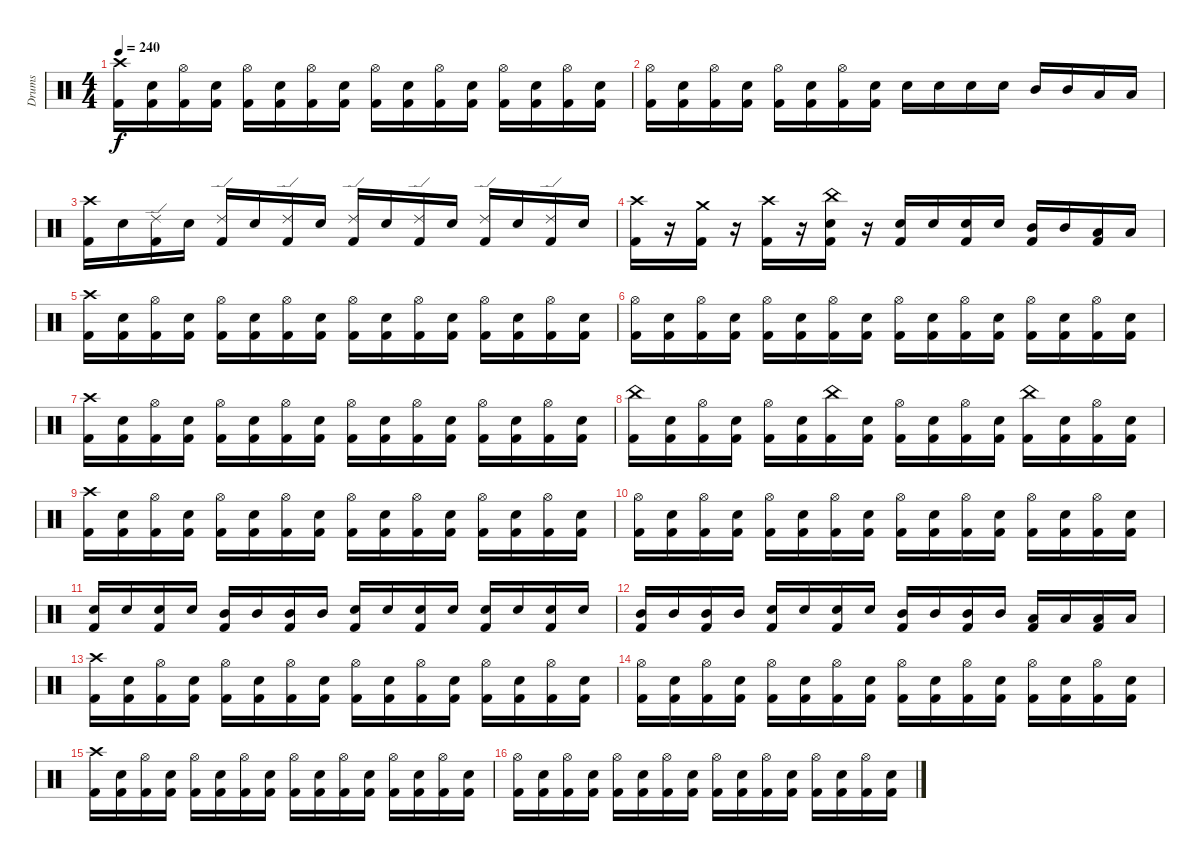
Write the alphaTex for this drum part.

\track ("Drums" "Drums") {instrument percussion}
\staff {score}
\articulation defaults
\ts (4 4)
\tempo 240
\clef neutral
\ks c
("Crash high (hit)" "Kick (hit) 2").16{dy f} ("Snare (hit) 2" "Kick (hit) 2").16 ("Hi-Hat (open)" "Kick (hit) 2").16 ("Snare (hit) 2" "Kick (hit) 2").16 ("Hi-Hat (open)" "Kick (hit) 2").16 ("Snare (hit) 2" "Kick (hit) 2").16 ("Hi-Hat (open)" "Kick (hit) 2").16 ("Snare (hit) 2" "Kick (hit) 2").16 ("Hi-Hat (open)" "Kick (hit) 2").16 ("Snare (hit) 2" "Kick (hit) 2").16 ("Hi-Hat (open)" "Kick (hit) 2").16 ("Snare (hit) 2" "Kick (hit) 2").16 ("Hi-Hat (open)" "Kick (hit) 2").16 ("Snare (hit) 2" "Kick (hit) 2").16 ("Hi-Hat (open)" "Kick (hit) 2").16 ("Snare (hit) 2" "Kick (hit) 2").16 |
("Hi-Hat (open)" "Kick (hit) 2").16 ("Snare (hit) 2" "Kick (hit) 2").16 ("Hi-Hat (open)" "Kick (hit) 2").16 ("Snare (hit) 2" "Kick (hit) 2").16 ("Hi-Hat (open)" "Kick (hit) 2").16 ("Snare (hit) 2" "Kick (hit) 2").16 ("Hi-Hat (open)" "Kick (hit) 2").16 ("Snare (hit) 2" "Kick (hit) 2").16 "Snare (hit) 2".16 "Snare (hit) 2".16 "Snare (hit) 2".16 "Snare (hit) 2".16 "Mid Tom (hit)".16 "Mid Tom (hit)".16 "Low Tom (hit)".16 "Low Tom (hit)".16 |
("Crash high (hit)" "Kick (hit) 2").16 "Snare (hit) 2".16 ("Ride (edge) 2" "Kick (hit) 2").16 "Snare (hit) 2".16 ("Ride (edge) 2" "Kick (hit) 2").16 "Snare (hit) 2".16 ("Ride (edge) 2" "Kick (hit) 2").16 "Snare (hit) 2".16 ("Ride (edge) 2" "Kick (hit) 2").16 "Snare (hit) 2".16 ("Ride (edge) 2" "Kick (hit) 2").16 "Snare (hit) 2".16 ("Ride (edge) 2" "Kick (hit) 2").16 "Snare (hit) 2".16 ("Ride (edge) 2" "Kick (hit) 2").16 "Snare (hit) 2".16 |
("Crash high (hit)" "Kick (hit) 2").16 r.16 ("Crash medium (hit)" "Kick (hit) 2").16 r.16 ("Crash high (hit)" "Kick (hit) 2").16 r.16 ("China (hit)" "Snare (hit) 2" "Kick (hit) 2").16 r.16 ("Snare (hit) 2" "Kick (hit) 2").16 "Snare (hit) 2".16 ("Snare (hit) 2" "Kick (hit) 2").16 "Snare (hit) 2".16 ("Mid Tom (hit)" "Kick (hit) 2").16 "Mid Tom (hit)".16 ("Low Tom (hit)" "Kick (hit) 2").16 "Low Tom (hit)".16 |
("Crash high (hit)" "Kick (hit) 2").16 ("Snare (hit) 2" "Kick (hit) 2").16 ("Hi-Hat (open)" "Kick (hit) 2").16 ("Snare (hit) 2" "Kick (hit) 2").16 ("Hi-Hat (open)" "Kick (hit) 2").16 ("Snare (hit) 2" "Kick (hit) 2").16 ("Hi-Hat (open)" "Kick (hit) 2").16 ("Snare (hit) 2" "Kick (hit) 2").16 ("Hi-Hat (open)" "Kick (hit) 2").16 ("Snare (hit) 2" "Kick (hit) 2").16 ("Hi-Hat (open)" "Kick (hit) 2").16 ("Snare (hit) 2" "Kick (hit) 2").16 ("Hi-Hat (open)" "Kick (hit) 2").16 ("Snare (hit) 2" "Kick (hit) 2").16 ("Hi-Hat (open)" "Kick (hit) 2").16 ("Snare (hit) 2" "Kick (hit) 2").16 |
("Hi-Hat (open)" "Kick (hit) 2").16 ("Snare (hit) 2" "Kick (hit) 2").16 ("Hi-Hat (open)" "Kick (hit) 2").16 ("Snare (hit) 2" "Kick (hit) 2").16 ("Hi-Hat (open)" "Kick (hit) 2").16 ("Snare (hit) 2" "Kick (hit) 2").16 ("Hi-Hat (open)" "Kick (hit) 2").16 ("Snare (hit) 2" "Kick (hit) 2").16 ("Hi-Hat (open)" "Kick (hit) 2").16 ("Snare (hit) 2" "Kick (hit) 2").16 ("Hi-Hat (open)" "Kick (hit) 2").16 ("Snare (hit) 2" "Kick (hit) 2").16 ("Hi-Hat (open)" "Kick (hit) 2").16 ("Snare (hit) 2" "Kick (hit) 2").16 ("Hi-Hat (open)" "Kick (hit) 2").16 ("Snare (hit) 2" "Kick (hit) 2").16 |
("Crash high (hit)" "Kick (hit) 2").16 ("Snare (hit) 2" "Kick (hit) 2").16 ("Hi-Hat (open)" "Kick (hit) 2").16 ("Snare (hit) 2" "Kick (hit) 2").16 ("Hi-Hat (open)" "Kick (hit) 2").16 ("Snare (hit) 2" "Kick (hit) 2").16 ("Hi-Hat (open)" "Kick (hit) 2").16 ("Snare (hit) 2" "Kick (hit) 2").16 ("Hi-Hat (open)" "Kick (hit) 2").16 ("Snare (hit) 2" "Kick (hit) 2").16 ("Hi-Hat (open)" "Kick (hit) 2").16 ("Snare (hit) 2" "Kick (hit) 2").16 ("Hi-Hat (open)" "Kick (hit) 2").16 ("Snare (hit) 2" "Kick (hit) 2").16 ("Hi-Hat (open)" "Kick (hit) 2").16 ("Snare (hit) 2" "Kick (hit) 2").16 |
("China (hit)" "Kick (hit) 2").16 ("Snare (hit) 2" "Kick (hit) 2").16 ("Hi-Hat (open)" "Kick (hit) 2").16 ("Snare (hit) 2" "Kick (hit) 2").16 ("Hi-Hat (open)" "Kick (hit) 2").16 ("Snare (hit) 2" "Kick (hit) 2").16 ("China (hit)" "Kick (hit) 2").16 ("Snare (hit) 2" "Kick (hit) 2").16 ("Hi-Hat (open)" "Kick (hit) 2").16 ("Snare (hit) 2" "Kick (hit) 2").16 ("Hi-Hat (open)" "Kick (hit) 2").16 ("Snare (hit) 2" "Kick (hit) 2").16 ("China (hit)" "Kick (hit) 2").16 ("Snare (hit) 2" "Kick (hit) 2").16 ("Hi-Hat (open)" "Kick (hit) 2").16 ("Snare (hit) 2" "Kick (hit) 2").16 |
("Crash high (hit)" "Kick (hit) 2").16 ("Snare (hit) 2" "Kick (hit) 2").16 ("Hi-Hat (open)" "Kick (hit) 2").16 ("Snare (hit) 2" "Kick (hit) 2").16 ("Hi-Hat (open)" "Kick (hit) 2").16 ("Snare (hit) 2" "Kick (hit) 2").16 ("Hi-Hat (open)" "Kick (hit) 2").16 ("Snare (hit) 2" "Kick (hit) 2").16 ("Hi-Hat (open)" "Kick (hit) 2").16 ("Snare (hit) 2" "Kick (hit) 2").16 ("Hi-Hat (open)" "Kick (hit) 2").16 ("Snare (hit) 2" "Kick (hit) 2").16 ("Hi-Hat (open)" "Kick (hit) 2").16 ("Snare (hit) 2" "Kick (hit) 2").16 ("Hi-Hat (open)" "Kick (hit) 2").16 ("Snare (hit) 2" "Kick (hit) 2").16 |
("Hi-Hat (open)" "Kick (hit) 2").16 ("Snare (hit) 2" "Kick (hit) 2").16 ("Hi-Hat (open)" "Kick (hit) 2").16 ("Snare (hit) 2" "Kick (hit) 2").16 ("Hi-Hat (open)" "Kick (hit) 2").16 ("Snare (hit) 2" "Kick (hit) 2").16 ("Hi-Hat (open)" "Kick (hit) 2").16 ("Snare (hit) 2" "Kick (hit) 2").16 ("Hi-Hat (open)" "Kick (hit) 2").16 ("Snare (hit) 2" "Kick (hit) 2").16 ("Hi-Hat (open)" "Kick (hit) 2").16 ("Snare (hit) 2" "Kick (hit) 2").16 ("Hi-Hat (open)" "Kick (hit) 2").16 ("Snare (hit) 2" "Kick (hit) 2").16 ("Hi-Hat (open)" "Kick (hit) 2").16 ("Snare (hit) 2" "Kick (hit) 2").16 |
("Snare (hit) 2" "Kick (hit) 2").16 "Snare (hit) 2".16 ("Snare (hit) 2" "Kick (hit) 2").16 "Snare (hit) 2".16 ("Mid Tom (hit)" "Kick (hit) 2").16 "Mid Tom (hit)".16 ("Mid Tom (hit)" "Kick (hit) 2").16 "Mid Tom (hit)".16 ("Snare (hit) 2" "Kick (hit) 2").16 "Snare (hit) 2".16 ("Snare (hit) 2" "Kick (hit) 2").16 "Snare (hit) 2".16 ("Snare (hit) 2" "Kick (hit) 2").16 "Snare (hit) 2".16 ("Snare (hit) 2" "Kick (hit) 2").16 "Snare (hit) 2".16 |
("Mid Tom (hit)" "Kick (hit) 2").16 "Mid Tom (hit)".16 ("Mid Tom (hit)" "Kick (hit) 2").16 "Mid Tom (hit)".16 ("Snare (hit) 2" "Kick (hit) 2").16 "Snare (hit) 2".16 ("Snare (hit) 2" "Kick (hit) 2").16 "Snare (hit) 2".16 ("Mid Tom (hit)" "Kick (hit) 2").16 "Mid Tom (hit)".16 ("Mid Tom (hit)" "Kick (hit) 2").16 "Mid Tom (hit)".16 ("Low Tom (hit)" "Kick (hit) 2").16 "Low Tom (hit)".16 ("Low Tom (hit)" "Kick (hit) 2").16 "Low Tom (hit)".16 |
("Crash high (hit)" "Kick (hit) 2").16 ("Snare (hit) 2" "Kick (hit) 2").16 ("Hi-Hat (open)" "Kick (hit) 2").16 ("Snare (hit) 2" "Kick (hit) 2").16 ("Hi-Hat (open)" "Kick (hit) 2").16 ("Snare (hit) 2" "Kick (hit) 2").16 ("Hi-Hat (open)" "Kick (hit) 2").16 ("Snare (hit) 2" "Kick (hit) 2").16 ("Hi-Hat (open)" "Kick (hit) 2").16 ("Snare (hit) 2" "Kick (hit) 2").16 ("Hi-Hat (open)" "Kick (hit) 2").16 ("Snare (hit) 2" "Kick (hit) 2").16 ("Hi-Hat (open)" "Kick (hit) 2").16 ("Snare (hit) 2" "Kick (hit) 2").16 ("Hi-Hat (open)" "Kick (hit) 2").16 ("Snare (hit) 2" "Kick (hit) 2").16 |
("Hi-Hat (open)" "Kick (hit) 2").16 ("Snare (hit) 2" "Kick (hit) 2").16 ("Hi-Hat (open)" "Kick (hit) 2").16 ("Snare (hit) 2" "Kick (hit) 2").16 ("Hi-Hat (open)" "Kick (hit) 2").16 ("Snare (hit) 2" "Kick (hit) 2").16 ("Hi-Hat (open)" "Kick (hit) 2").16 ("Snare (hit) 2" "Kick (hit) 2").16 ("Hi-Hat (open)" "Kick (hit) 2").16 ("Snare (hit) 2" "Kick (hit) 2").16 ("Hi-Hat (open)" "Kick (hit) 2").16 ("Snare (hit) 2" "Kick (hit) 2").16 ("Hi-Hat (open)" "Kick (hit) 2").16 ("Snare (hit) 2" "Kick (hit) 2").16 ("Hi-Hat (open)" "Kick (hit) 2").16 ("Snare (hit) 2" "Kick (hit) 2").16 |
("Crash high (hit)" "Kick (hit) 2").16 ("Snare (hit) 2" "Kick (hit) 2").16 ("Hi-Hat (open)" "Kick (hit) 2").16 ("Snare (hit) 2" "Kick (hit) 2").16 ("Hi-Hat (open)" "Kick (hit) 2").16 ("Snare (hit) 2" "Kick (hit) 2").16 ("Hi-Hat (open)" "Kick (hit) 2").16 ("Snare (hit) 2" "Kick (hit) 2").16 ("Hi-Hat (open)" "Kick (hit) 2").16 ("Snare (hit) 2" "Kick (hit) 2").16 ("Hi-Hat (open)" "Kick (hit) 2").16 ("Snare (hit) 2" "Kick (hit) 2").16 ("Hi-Hat (open)" "Kick (hit) 2").16 ("Snare (hit) 2" "Kick (hit) 2").16 ("Hi-Hat (open)" "Kick (hit) 2").16 ("Snare (hit) 2" "Kick (hit) 2").16 |
("Hi-Hat (open)" "Kick (hit) 2").16 ("Snare (hit) 2" "Kick (hit) 2").16 ("Hi-Hat (open)" "Kick (hit) 2").16 ("Snare (hit) 2" "Kick (hit) 2").16 ("Hi-Hat (open)" "Kick (hit) 2").16 ("Snare (hit) 2" "Kick (hit) 2").16 ("Hi-Hat (open)" "Kick (hit) 2").16 ("Snare (hit) 2" "Kick (hit) 2").16 ("Hi-Hat (open)" "Kick (hit) 2").16 ("Snare (hit) 2" "Kick (hit) 2").16 ("Hi-Hat (open)" "Kick (hit) 2").16 ("Snare (hit) 2" "Kick (hit) 2").16 ("Hi-Hat (open)" "Kick (hit) 2").16 ("Snare (hit) 2" "Kick (hit) 2").16 ("Hi-Hat (open)" "Kick (hit) 2").16 ("Snare (hit) 2" "Kick (hit) 2").16
